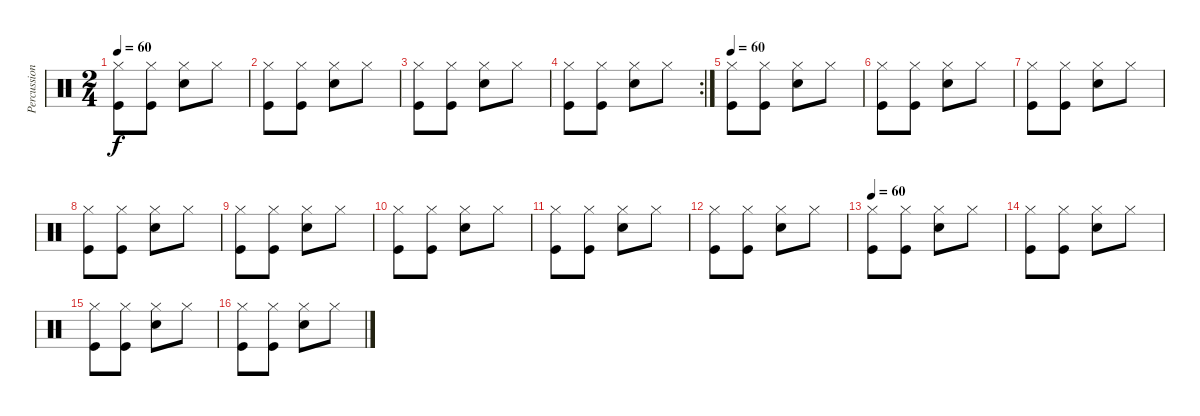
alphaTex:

\track ("Percussions" "Percussion") {instrument percussion}
\staff {score}
\articulation defaults
\ts (2 4)
\tempo 60
\clef neutral
\ks c
("Hi-Hat (closed)" "Kick (hit)").8{dy f} ("Hi-Hat (closed)" "Kick (hit)").8 ("Hi-Hat (closed)" "Electric Snare (hit)").8 "Hi-Hat (closed)".8 |
("Hi-Hat (closed)" "Kick (hit)").8 ("Hi-Hat (closed)" "Kick (hit)").8 ("Hi-Hat (closed)" "Electric Snare (hit)").8 "Hi-Hat (closed)".8 |
("Hi-Hat (closed)" "Kick (hit)").8 ("Hi-Hat (closed)" "Kick (hit)").8 ("Hi-Hat (closed)" "Electric Snare (hit)").8 "Hi-Hat (closed)".8 |
\rc 2
("Hi-Hat (closed)" "Kick (hit)").8 ("Hi-Hat (closed)" "Kick (hit)").8 ("Hi-Hat (closed)" "Electric Snare (hit)").8 "Hi-Hat (closed)".8 |
\tempo 60
("Hi-Hat (closed)" "Kick (hit)").8 ("Hi-Hat (closed)" "Kick (hit)").8 ("Hi-Hat (closed)" "Electric Snare (hit)").8 "Hi-Hat (closed)".8 |
("Hi-Hat (closed)" "Kick (hit)").8 ("Hi-Hat (closed)" "Kick (hit)").8 ("Hi-Hat (closed)" "Electric Snare (hit)").8 "Hi-Hat (closed)".8 |
("Hi-Hat (closed)" "Kick (hit)").8 ("Hi-Hat (closed)" "Kick (hit)").8 ("Hi-Hat (closed)" "Electric Snare (hit)").8 "Hi-Hat (closed)".8 |
("Hi-Hat (closed)" "Kick (hit)").8 ("Hi-Hat (closed)" "Kick (hit)").8 ("Hi-Hat (closed)" "Electric Snare (hit)").8 "Hi-Hat (closed)".8 |
("Hi-Hat (closed)" "Kick (hit)").8 ("Hi-Hat (closed)" "Kick (hit)").8 ("Hi-Hat (closed)" "Electric Snare (hit)").8 "Hi-Hat (closed)".8 |
("Hi-Hat (closed)" "Kick (hit)").8 ("Hi-Hat (closed)" "Kick (hit)").8 ("Hi-Hat (closed)" "Electric Snare (hit)").8 "Hi-Hat (closed)".8 |
("Hi-Hat (closed)" "Kick (hit)").8 ("Hi-Hat (closed)" "Kick (hit)").8 ("Hi-Hat (closed)" "Electric Snare (hit)").8 "Hi-Hat (closed)".8 |
("Hi-Hat (closed)" "Kick (hit)").8 ("Hi-Hat (closed)" "Kick (hit)").8 ("Hi-Hat (closed)" "Electric Snare (hit)").8 "Hi-Hat (closed)".8 |
\tempo 60
("Hi-Hat (closed)" "Kick (hit)").8 ("Hi-Hat (closed)" "Kick (hit)").8 ("Hi-Hat (closed)" "Electric Snare (hit)").8 "Hi-Hat (closed)".8 |
("Hi-Hat (closed)" "Kick (hit)").8 ("Hi-Hat (closed)" "Kick (hit)").8 ("Hi-Hat (closed)" "Electric Snare (hit)").8 "Hi-Hat (closed)".8 |
("Hi-Hat (closed)" "Kick (hit)").8 ("Hi-Hat (closed)" "Kick (hit)").8 ("Hi-Hat (closed)" "Electric Snare (hit)").8 "Hi-Hat (closed)".8 |
("Hi-Hat (closed)" "Kick (hit)").8 ("Hi-Hat (closed)" "Kick (hit)").8 ("Hi-Hat (closed)" "Electric Snare (hit)").8 "Hi-Hat (closed)".8
